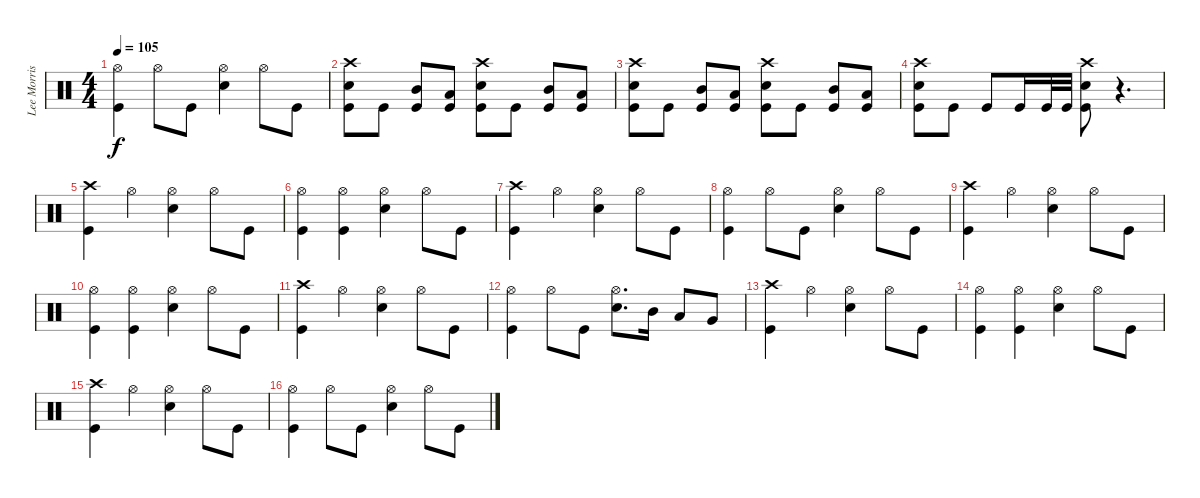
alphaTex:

\track ("Lee Morris" "Lee Morris") {instrument percussion}
\staff {score}
\articulation defaults
\ts (4 4)
\tempo 105
\clef neutral
\ks c
("Kick (hit)" "Hi-Hat (open)").4{dy f} "Hi-Hat (open)".8 "Kick (hit)".8 ("Snare (hit) 2" "Hi-Hat (open)").4 "Hi-Hat (open)".8 "Kick (hit)".8 |
("Kick (hit)" "Snare (hit) 2" "Crash high (hit)").8 "Kick (hit)".8 ("Kick (hit)" "Mid Tom (hit)").8 ("Kick (hit)" "Low Tom (hit)").8 ("Kick (hit)" "Snare (hit) 2" "Crash high (hit)").8 "Kick (hit)".8 ("Kick (hit)" "Mid Tom (hit)").8 ("Kick (hit)" "Low Tom (hit)").8 |
("Kick (hit)" "Snare (hit) 2" "Crash high (hit)").8 "Kick (hit)".8 ("Kick (hit)" "Mid Tom (hit)").8 ("Kick (hit)" "Low Tom (hit)").8 ("Kick (hit)" "Snare (hit) 2" "Crash high (hit)").8 "Kick (hit)".8 ("Kick (hit)" "Mid Tom (hit)").8 ("Kick (hit)" "Low Tom (hit)").8 |
("Kick (hit)" "Snare (hit) 2" "Crash high (hit)").8 "Kick (hit)".8 "Kick (hit)".8 "Kick (hit)".16 "Kick (hit)".32 "Kick (hit)".32 ("Kick (hit)" "Snare (hit) 2" "Crash high (hit)").8 r.4{d} |
("Kick (hit)" "Crash high (hit)").4 "Hi-Hat (open)".4 ("Snare (hit) 2" "Hi-Hat (open)").4 "Hi-Hat (open)".8 "Kick (hit)".8 |
("Kick (hit)" "Hi-Hat (open)").4 ("Kick (hit)" "Hi-Hat (open)").4 ("Snare (hit) 2" "Hi-Hat (open)").4 "Hi-Hat (open)".8 "Kick (hit)".8 |
("Kick (hit)" "Crash high (hit)").4 "Hi-Hat (open)".4 ("Snare (hit) 2" "Hi-Hat (open)").4 "Hi-Hat (open)".8 "Kick (hit)".8 |
("Kick (hit)" "Hi-Hat (open)").4 "Hi-Hat (open)".8 "Kick (hit)".8 ("Snare (hit) 2" "Hi-Hat (open)").4 "Hi-Hat (open)".8 "Kick (hit)".8 |
("Kick (hit)" "Crash high (hit)").4 "Hi-Hat (open)".4 ("Snare (hit) 2" "Hi-Hat (open)").4 "Hi-Hat (open)".8 "Kick (hit)".8 |
("Kick (hit)" "Hi-Hat (open)").4 ("Kick (hit)" "Hi-Hat (open)").4 ("Snare (hit) 2" "Hi-Hat (open)").4 "Hi-Hat (open)".8 "Kick (hit)".8 |
("Kick (hit)" "Crash high (hit)").4 "Hi-Hat (open)".4 ("Snare (hit) 2" "Hi-Hat (open)").4 "Hi-Hat (open)".8 "Kick (hit)".8 |
("Kick (hit)" "Hi-Hat (open)").4 "Hi-Hat (open)".8 "Kick (hit)".8 ("Snare (hit) 2" "Hi-Hat (open)").8{d} "Mid Tom (hit)".16 "Low Tom (hit)".8 "Very Low Tom (hit)".8 |
("Kick (hit)" "Crash high (hit)").4 "Hi-Hat (open)".4 ("Snare (hit) 2" "Hi-Hat (open)").4 "Hi-Hat (open)".8 "Kick (hit)".8 |
("Kick (hit)" "Hi-Hat (open)").4 ("Kick (hit)" "Hi-Hat (open)").4 ("Snare (hit) 2" "Hi-Hat (open)").4 "Hi-Hat (open)".8 "Kick (hit)".8 |
("Kick (hit)" "Crash high (hit)").4 "Hi-Hat (open)".4 ("Snare (hit) 2" "Hi-Hat (open)").4 "Hi-Hat (open)".8 "Kick (hit)".8 |
("Kick (hit)" "Hi-Hat (open)").4 "Hi-Hat (open)".8 "Kick (hit)".8 ("Snare (hit) 2" "Hi-Hat (open)").4 "Hi-Hat (open)".8 "Kick (hit)".8
